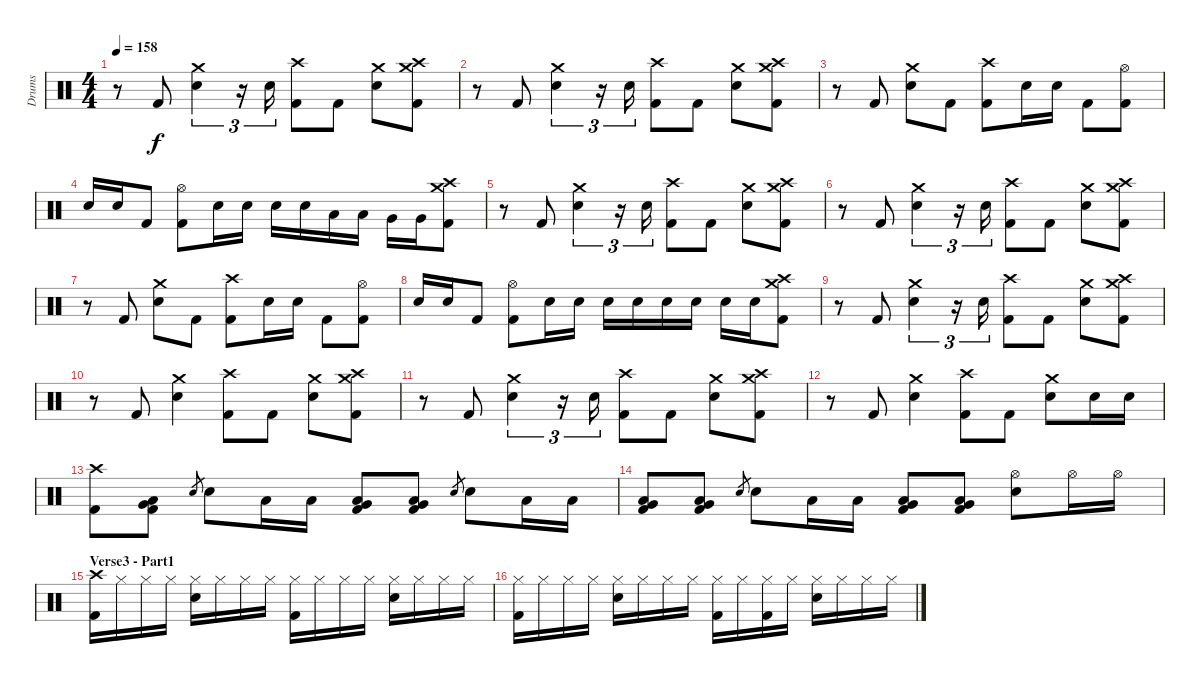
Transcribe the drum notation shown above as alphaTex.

\track ("Drums" "Drums") {instrument percussion}
\staff {score}
\articulation defaults
\ts (4 4)
\tempo 158
\clef neutral
\ks c
r.8{dy f} "Kick (hit) 2".8 ("Crash medium (hit)" "Snare (hit) 2").4{tu (3 2)} r.16{tu (3 2)} "Snare (hit) 2".16{tu (3 2)} ("Crash high (hit)" "Kick (hit) 2").8 "Kick (hit) 2".8 ("Crash medium (hit)" "Snare (hit) 2").8 ("Crash high (hit)" "Crash medium (hit)" "Kick (hit) 2").8 |
r.8 "Kick (hit) 2".8 ("Crash medium (hit)" "Snare (hit) 2").4{tu (3 2)} r.16{tu (3 2)} "Snare (hit) 2".16{tu (3 2)} ("Crash high (hit)" "Kick (hit) 2").8 "Kick (hit) 2".8 ("Crash medium (hit)" "Snare (hit) 2").8 ("Crash high (hit)" "Crash medium (hit)" "Kick (hit) 2").8 |
r.8 "Kick (hit) 2".8 ("Crash medium (hit)" "Snare (hit) 2").8 "Kick (hit) 2".8 ("Crash high (hit)" "Kick (hit) 2").8 "Snare (hit) 2".16 "Snare (hit) 2".16 "Kick (hit) 2".8 ("Hi-Hat (open)" "Kick (hit) 2").8 |
"Snare (hit) 2".16 "Snare (hit) 2".16 "Kick (hit) 2".8 ("Hi-Hat (open)" "Kick (hit) 2").8 "Snare (hit) 2".16 "Snare (hit) 2".16 "Snare (hit) 2".16 "Snare (hit) 2".16 "Low Tom (hit)".16 "Low Tom (hit)".16 "Very Low Tom (hit)".16 "Very Low Tom (hit)".16 ("Crash high (hit)" "Crash medium (hit)" "Kick (hit) 2").8 |
r.8 "Kick (hit) 2".8 ("Crash medium (hit)" "Snare (hit) 2").4{tu (3 2)} r.16{tu (3 2)} "Snare (hit) 2".16{tu (3 2)} ("Crash high (hit)" "Kick (hit) 2").8 "Kick (hit) 2".8 ("Crash medium (hit)" "Snare (hit) 2").8 ("Crash high (hit)" "Crash medium (hit)" "Kick (hit) 2").8 |
r.8 "Kick (hit) 2".8 ("Crash medium (hit)" "Snare (hit) 2").4{tu (3 2)} r.16{tu (3 2)} "Snare (hit) 2".16{tu (3 2)} ("Crash high (hit)" "Kick (hit) 2").8 "Kick (hit) 2".8 ("Crash medium (hit)" "Snare (hit) 2").8 ("Crash high (hit)" "Crash medium (hit)" "Kick (hit) 2").8 |
r.8 "Kick (hit) 2".8 ("Crash medium (hit)" "Snare (hit) 2").8 "Kick (hit) 2".8 ("Crash high (hit)" "Kick (hit) 2").8 "Snare (hit) 2".16 "Snare (hit) 2".16 "Kick (hit) 2".8 ("Hi-Hat (open)" "Kick (hit) 2").8 |
"Snare (hit) 2".16 "Snare (hit) 2".16 "Kick (hit) 2".8 ("Hi-Hat (open)" "Kick (hit) 2").8 "Snare (hit) 2".16 "Snare (hit) 2".16 "Snare (hit) 2".16 "Snare (hit) 2".16 "Snare (hit) 2".16 "Snare (hit) 2".16 "Snare (hit) 2".16 "Snare (hit) 2".16 ("Crash high (hit)" "Crash medium (hit)" "Kick (hit) 2").8 |
r.8 "Kick (hit) 2".8 ("Crash medium (hit)" "Snare (hit) 2").4{tu (3 2)} r.16{tu (3 2)} "Snare (hit) 2".16{tu (3 2)} ("Crash high (hit)" "Kick (hit) 2").8 "Kick (hit) 2".8 ("Crash medium (hit)" "Snare (hit) 2").8 ("Crash high (hit)" "Crash medium (hit)" "Kick (hit) 2").8 |
r.8 "Kick (hit) 2".8 ("Crash medium (hit)" "Snare (hit) 2").4 ("Crash high (hit)" "Kick (hit) 2").8 "Kick (hit) 2".8 ("Crash medium (hit)" "Snare (hit) 2").8 ("Crash high (hit)" "Crash medium (hit)" "Kick (hit) 2").8 |
r.8 "Kick (hit) 2".8 ("Crash medium (hit)" "Snare (hit) 2").4{tu (3 2)} r.16{tu (3 2)} "Snare (hit) 2".16{tu (3 2)} ("Crash high (hit)" "Kick (hit) 2").8 "Kick (hit) 2".8 ("Crash medium (hit)" "Snare (hit) 2").8 ("Crash high (hit)" "Crash medium (hit)" "Kick (hit) 2").8 |
r.8 "Kick (hit) 2".8 ("Crash medium (hit)" "Snare (hit) 2").4 ("Crash high (hit)" "Kick (hit) 2").8 "Kick (hit) 2".8 ("Crash medium (hit)" "Snare (hit) 2").8 "Snare (hit) 2".16 "Snare (hit) 2".16 |
("Crash high (hit)" "Kick (hit) 2").8 ("Low Tom (hit)" "Very Low Tom (hit)" "Kick (hit) 2").8 "Snare (hit) 2".8{gr} "Snare (hit) 2".8 "Low Tom (hit)".16 "Low Tom (hit)".16 ("Low Tom (hit)" "Very Low Tom (hit)" "Kick (hit) 2").8 ("Low Tom (hit)" "Very Low Tom (hit)" "Kick (hit) 2").8 "Snare (hit) 2".8{gr} "Snare (hit) 2".8 "Low Tom (hit)".16 "Low Tom (hit)".16 |
("Low Tom (hit)" "Very Low Tom (hit)" "Kick (hit) 2").8 ("Low Tom (hit)" "Very Low Tom (hit)" "Kick (hit) 2").8 "Snare (hit) 2".8{gr} "Snare (hit) 2".8 "Low Tom (hit)".16 "Low Tom (hit)".16 ("Low Tom (hit)" "Very Low Tom (hit)" "Kick (hit) 2").8 ("Low Tom (hit)" "Very Low Tom (hit)" "Kick (hit) 2").8 ("Hi-Hat (open)" "Snare (hit) 2").8 "Hi-Hat (open)".16 "Hi-Hat (open)".16 |
\section ("" "Verse3 - Part1")
("Crash high (hit)" "Kick (hit) 2").16 "Hi-Hat (closed)".16 "Hi-Hat (closed)".16 "Hi-Hat (closed)".16 ("Hi-Hat (closed)" "Snare (hit) 2").16 "Hi-Hat (closed)".16 "Hi-Hat (closed)".16 "Hi-Hat (closed)".16 ("Hi-Hat (closed)" "Kick (hit) 2").16 "Hi-Hat (closed)".16 "Hi-Hat (closed)".16 "Hi-Hat (closed)".16 ("Hi-Hat (closed)" "Snare (hit) 2").16 "Hi-Hat (closed)".16 "Hi-Hat (closed)".16 "Hi-Hat (closed)".16 |
("Hi-Hat (closed)" "Kick (hit) 2").16 "Hi-Hat (closed)".16 "Hi-Hat (closed)".16 "Hi-Hat (closed)".16 ("Hi-Hat (closed)" "Snare (hit) 2").16 "Hi-Hat (closed)".16 "Hi-Hat (closed)".16 "Hi-Hat (closed)".16 ("Hi-Hat (closed)" "Kick (hit) 2").16 "Hi-Hat (closed)".16 ("Hi-Hat (closed)" "Kick (hit) 2").16 "Hi-Hat (closed)".16 ("Hi-Hat (closed)" "Snare (hit) 2").16 "Hi-Hat (closed)".16 "Hi-Hat (closed)".16 "Hi-Hat (closed)".16
